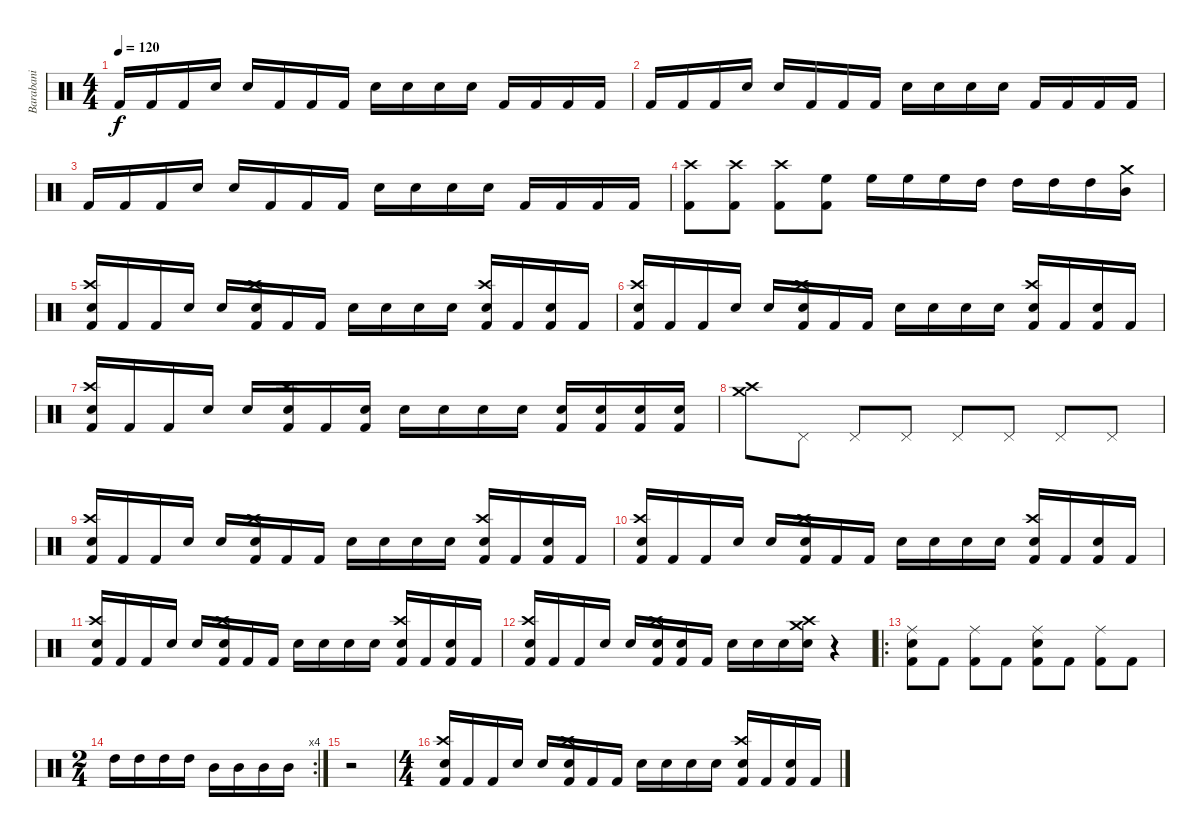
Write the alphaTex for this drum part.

\track ("Barabani" "Barabani") {instrument percussion}
\staff {score}
\articulation defaults
\ts (4 4)
\tempo 120
\clef neutral
\ks c "Kick (hit) 2".16{dy f} "Kick (hit) 2".16 "Kick (hit) 2".16 "Snare (hit)".16 "Snare (hit)".16 "Kick (hit) 2".16 "Kick (hit) 2".16 "Kick (hit) 2".16 "Snare (hit)".16 "Snare (hit)".16 "Snare (hit)".16 "Snare (hit)".16 "Kick (hit) 2".16 "Kick (hit) 2".16 "Kick (hit) 2".16 "Kick (hit) 2".16
|
"Kick (hit) 2".16 "Kick (hit) 2".16 "Kick (hit) 2".16 "Snare (hit)".16 "Snare (hit)".16 "Kick (hit) 2".16 "Kick (hit) 2".16 "Kick (hit) 2".16 "Snare (hit)".16 "Snare (hit)".16 "Snare (hit)".16 "Snare (hit)".16 "Kick (hit) 2".16 "Kick (hit) 2".16 "Kick (hit) 2".16 "Kick (hit) 2".16 |
"Kick (hit) 2".16 "Kick (hit) 2".16 "Kick (hit) 2".16 "Snare (hit)".16 "Snare (hit)".16 "Kick (hit) 2".16 "Kick (hit) 2".16 "Kick (hit) 2".16 "Snare (hit)".16 "Snare (hit)".16 "Snare (hit)".16 "Snare (hit)".16 "Kick (hit) 2".16 "Kick (hit) 2".16 "Kick (hit) 2".16 "Kick (hit) 2".16 |
("Crash high (hit)" "Kick (hit) 2").8 ("Crash high (hit)" "Kick (hit) 2").8 ("Crash high (hit)" "Kick (hit) 2").8 ("High Floor Tom (hit)" "Kick (hit) 2").8 "High Floor Tom (hit)".16 "High Floor Tom (hit)".16 "High Floor Tom (hit)".16 "High Tom (hit)".16 "High Tom (hit)".16 "High Tom (hit)".16 "High Tom (hit)".16 ("Crash medium (hit)" "Mid Tom (hit)").16 |
("Crash high (hit)" "Electric Snare (hit)" "Kick (hit) 2").16 "Kick (hit) 2".16 "Kick (hit) 2".16 "Snare (hit)".16 "Snare (hit)".16 ("Crash high (hit)" "Electric Snare (hit)" "Kick (hit) 2").16 "Kick (hit) 2".16 "Kick (hit) 2".16 "Snare (hit)".16 "Snare (hit)".16 "Snare (hit)".16 "Snare (hit)".16 ("Crash high (hit)" "Electric Snare (hit)" "Kick (hit) 2").16 "Kick (hit) 2".16 ("Electric Snare (hit)" "Kick (hit) 2").16 "Kick (hit) 2".16 |
("Crash high (hit)" "Electric Snare (hit)" "Kick (hit) 2").16 "Kick (hit) 2".16 "Kick (hit) 2".16 "Snare (hit)".16 "Snare (hit)".16 ("Crash high (hit)" "Electric Snare (hit)" "Kick (hit) 2").16 "Kick (hit) 2".16 "Kick (hit) 2".16 "Snare (hit)".16 "Snare (hit)".16 "Snare (hit)".16 "Snare (hit)".16 ("Crash high (hit)" "Electric Snare (hit)" "Kick (hit) 2").16 "Kick (hit) 2".16 ("Electric Snare (hit)" "Kick (hit) 2").16 "Kick (hit) 2".16 |
("Crash high (hit)" "Electric Snare (hit)" "Kick (hit) 2").16 "Kick (hit) 2".16 "Kick (hit) 2".16 "Snare (hit)".16 "Snare (hit)".16 ("Crash high (hit)" "Electric Snare (hit)" "Kick (hit) 2").16 "Kick (hit) 2".16 ("Electric Snare (hit)" "Kick (hit) 2").16 "Snare (hit)".16 "Snare (hit)".16 "Snare (hit)".16 "Snare (hit)".16 ("Electric Snare (hit)" "Kick (hit) 2").16 ("Electric Snare (hit)" "Kick (hit) 2").16 ("Electric Snare (hit)" "Kick (hit) 2").16 ("Electric Snare (hit)" "Kick (hit) 2").16 |
("Crash medium (hit)" "Crash high (hit)").8 "Pedal Hi-Hat (hit)".8 "Pedal Hi-Hat (hit)".8 "Pedal Hi-Hat (hit)".8 "Pedal Hi-Hat (hit)".8 "Pedal Hi-Hat (hit)".8 "Pedal Hi-Hat (hit)".8 "Pedal Hi-Hat (hit)".8 |
("Crash high (hit)" "Electric Snare (hit)" "Kick (hit) 2").16 "Kick (hit) 2".16 "Kick (hit) 2".16 "Snare (hit)".16 "Snare (hit)".16 ("Crash high (hit)" "Electric Snare (hit)" "Kick (hit) 2").16 "Kick (hit) 2".16 "Kick (hit) 2".16 "Snare (hit)".16 "Snare (hit)".16 "Snare (hit)".16 "Snare (hit)".16 ("Crash high (hit)" "Electric Snare (hit)" "Kick (hit) 2").16 "Kick (hit) 2".16 ("Electric Snare (hit)" "Kick (hit) 2").16 "Kick (hit) 2".16 |
("Crash high (hit)" "Electric Snare (hit)" "Kick (hit) 2").16 "Kick (hit) 2".16 "Kick (hit) 2".16 "Snare (hit)".16 "Snare (hit)".16 ("Crash high (hit)" "Electric Snare (hit)" "Kick (hit) 2").16 "Kick (hit) 2".16 "Kick (hit) 2".16 "Snare (hit)".16 "Snare (hit)".16 "Snare (hit)".16 "Snare (hit)".16 ("Crash high (hit)" "Electric Snare (hit)" "Kick (hit) 2").16 "Kick (hit) 2".16 ("Electric Snare (hit)" "Kick (hit) 2").16 "Kick (hit) 2".16 |
("Crash high (hit)" "Electric Snare (hit)" "Kick (hit) 2").16 "Kick (hit) 2".16 "Kick (hit) 2".16 "Snare (hit)".16 "Snare (hit)".16 ("Crash high (hit)" "Electric Snare (hit)" "Kick (hit) 2").16 "Kick (hit) 2".16 "Kick (hit) 2".16 "Snare (hit)".16 "Snare (hit)".16 "Snare (hit)".16 "Snare (hit)".16 ("Crash high (hit)" "Electric Snare (hit)" "Kick (hit) 2").16 "Kick (hit) 2".16 ("Electric Snare (hit)" "Kick (hit) 2").16 "Kick (hit) 2".16 |
("Crash high (hit)" "Electric Snare (hit)" "Kick (hit) 2").16 "Kick (hit) 2".16 "Kick (hit) 2".16 "Snare (hit)".16 "Snare (hit)".16 ("Crash high (hit)" "Electric Snare (hit)" "Kick (hit) 2").16 ("Electric Snare (hit)" "Kick (hit) 2").16 "Kick (hit) 2".16 "Snare (hit)".16 "Snare (hit)".16 "Snare (hit)".16 ("Crash medium (hit)" "Crash high (hit)" "Snare (hit)").16 r.4 |
\ro
("Ride (middle)" "Electric Snare (hit)" "Kick (hit) 2").8 "Kick (hit) 2".8 ("Ride (middle)" "Kick (hit) 2").8 "Kick (hit) 2".8 ("Ride (middle)" "Electric Snare (hit)" "Kick (hit) 2").8 "Kick (hit) 2".8 ("Ride (middle)" "Kick (hit) 2").8 "Kick (hit) 2".8 |
\rc 4
\ts (2 4)
"High Tom (hit)".16 "High Tom (hit)".16 "High Tom (hit)".16 "High Tom (hit)".16 "Mid Tom (hit)".16 "Mid Tom (hit)".16 "Mid Tom (hit)".16 "Mid Tom (hit)".16 |
r.2 |
\ts (4 4)
("Crash high (hit)" "Electric Snare (hit)" "Kick (hit) 2").16 "Kick (hit) 2".16 "Kick (hit) 2".16 "Snare (hit)".16 "Snare (hit)".16 ("Crash high (hit)" "Electric Snare (hit)" "Kick (hit) 2").16 "Kick (hit) 2".16 "Kick (hit) 2".16 "Snare (hit)".16 "Snare (hit)".16 "Snare (hit)".16 "Snare (hit)".16 ("Crash high (hit)" "Electric Snare (hit)" "Kick (hit) 2").16 "Kick (hit) 2".16 ("Electric Snare (hit)" "Kick (hit) 2").16 "Kick (hit) 2".16
